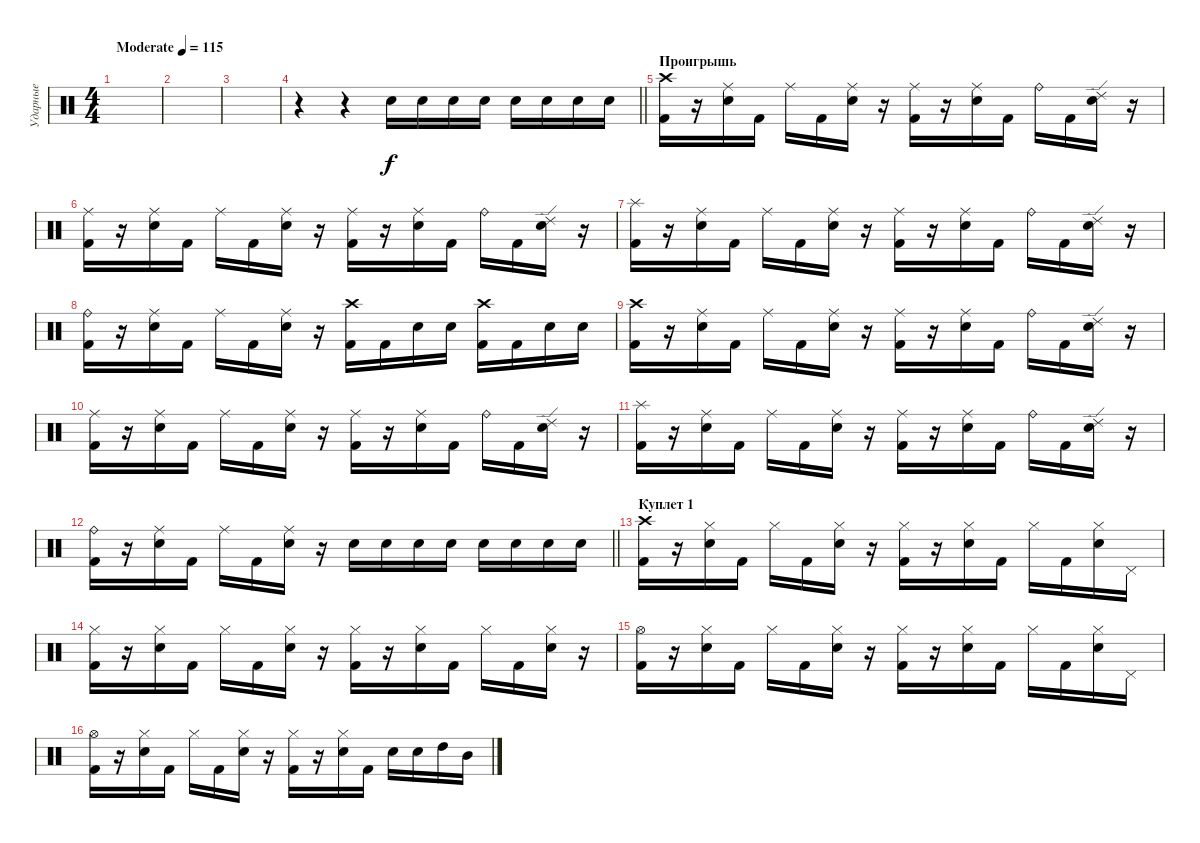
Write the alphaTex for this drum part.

\track ("Ударные" "Ударные") {instrument percussion}
\staff {score}
\articulation defaults
\ts (4 4)
\tempo (115 "Moderate")
\clef neutral
\ks c
|
|
|
\barLineRight lightlight
r.4 r.4 "Electric Snare (hit)".16 "Electric Snare (hit)".16 "Electric Snare (hit)".16 "Electric Snare (hit)".16 "Electric Snare (hit)".16 "Electric Snare (hit)".16 "Electric Snare (hit)".16 "Electric Snare (hit)".16 |
\section ("" "Проигрышь")
("Kick (hit) 2" "Crash high (hit)").16 r.16 ("Electric Snare (hit)" "Ride (middle)").16 "Kick (hit) 2".16 "Ride (middle)".16 "Kick (hit) 2".16 ("Electric Snare (hit)" "Ride (middle)").16 r.16 ("Kick (hit) 2" "Ride (middle)").16 r.16 ("Electric Snare (hit)" "Ride (middle)").16 "Kick (hit) 2".16 "Ride (bell)".16 "Kick (hit) 2".16 ("Electric Snare (hit)" "Ride (edge) 2").16 r.16 |
("Kick (hit) 2" "Ride (middle)").16 r.16 ("Electric Snare (hit)" "Ride (middle)").16 "Kick (hit) 2".16 "Ride (middle)".16 "Kick (hit) 2".16 ("Electric Snare (hit)" "Ride (middle)").16 r.16 ("Kick (hit) 2" "Ride (middle)").16 r.16 ("Electric Snare (hit)" "Ride (middle)").16 "Kick (hit) 2".16 "Ride (bell)".16 "Kick (hit) 2".16 ("Electric Snare (hit)" "Ride (edge) 2").16 r.16 |
("Kick (hit) 2" "Splash (hit)").16 r.16 ("Electric Snare (hit)" "Ride (middle)").16 "Kick (hit) 2".16 "Ride (middle)".16 "Kick (hit) 2".16 ("Electric Snare (hit)" "Ride (middle)").16 r.16 ("Kick (hit) 2" "Ride (middle)").16 r.16 ("Electric Snare (hit)" "Ride (middle)").16 "Kick (hit) 2".16 "Ride (bell)".16 "Kick (hit) 2".16 ("Electric Snare (hit)" "Ride (edge) 2").16 r.16 |
("Kick (hit) 2" "Ride (bell)").16 r.16 ("Electric Snare (hit)" "Ride (middle)").16 "Kick (hit) 2".16 "Ride (middle)".16 "Kick (hit) 2".16 ("Electric Snare (hit)" "Ride (middle)").16 r.16 ("Kick (hit) 2" "Crash high (hit)").16 "Kick (hit) 2".16 "Electric Snare (hit)".16 "Electric Snare (hit)".16 ("Kick (hit) 2" "Crash high (hit)").16 "Kick (hit) 2".16 "Electric Snare (hit)".16 "Electric Snare (hit)".16 |
("Kick (hit) 2" "Crash high (hit)").16 r.16 ("Electric Snare (hit)" "Ride (middle)").16 "Kick (hit) 2".16 "Ride (middle)".16 "Kick (hit) 2".16 ("Electric Snare (hit)" "Ride (middle)").16 r.16 ("Kick (hit) 2" "Ride (middle)").16 r.16 ("Electric Snare (hit)" "Ride (middle)").16 "Kick (hit) 2".16 "Ride (bell)".16 "Kick (hit) 2".16 ("Electric Snare (hit)" "Ride (edge) 2").16 r.16 |
("Kick (hit) 2" "Ride (middle)").16 r.16 ("Electric Snare (hit)" "Ride (middle)").16 "Kick (hit) 2".16 "Ride (middle)".16 "Kick (hit) 2".16 ("Electric Snare (hit)" "Ride (middle)").16 r.16 ("Kick (hit) 2" "Ride (middle)").16 r.16 ("Electric Snare (hit)" "Ride (middle)").16 "Kick (hit) 2".16 "Ride (bell)".16 "Kick (hit) 2".16 ("Electric Snare (hit)" "Ride (edge) 2").16 r.16 |
("Kick (hit) 2" "Splash (hit)").16 r.16 ("Electric Snare (hit)" "Ride (middle)").16 "Kick (hit) 2".16 "Ride (middle)".16 "Kick (hit) 2".16 ("Electric Snare (hit)" "Ride (middle)").16 r.16 ("Kick (hit) 2" "Ride (middle)").16 r.16 ("Electric Snare (hit)" "Ride (middle)").16 "Kick (hit) 2".16 "Ride (bell)".16 "Kick (hit) 2".16 ("Electric Snare (hit)" "Ride (edge) 2").16 r.16 |
\barLineRight lightlight
("Kick (hit) 2" "Ride (bell)").16 r.16 ("Electric Snare (hit)" "Ride (middle)").16 "Kick (hit) 2".16 "Ride (middle)".16 "Kick (hit) 2".16 ("Electric Snare (hit)" "Ride (middle)").16 r.16 "Electric Snare (hit)".16 "Electric Snare (hit)".16 "Electric Snare (hit)".16 "Electric Snare (hit)".16 "Electric Snare (hit)".16 "Electric Snare (hit)".16 "Electric Snare (hit)".16 "Electric Snare (hit)".16 |
\section ("" "Куплет 1")
("Kick (hit) 2" "Crash high (hit)").16 r.16 ("Electric Snare (hit)" "Hi-Hat (closed)").16 "Kick (hit) 2".16 "Hi-Hat (closed)".16 "Kick (hit) 2".16 ("Electric Snare (hit)" "Hi-Hat (closed)").16 r.16 ("Kick (hit) 2" "Hi-Hat (closed)").16 r.16 ("Electric Snare (hit)" "Hi-Hat (closed)").16 "Kick (hit) 2".16 "Hi-Hat (closed)".16 "Kick (hit) 2".16 ("Electric Snare (hit)" "Hi-Hat (closed)").16 "Pedal Hi-Hat (hit)".16 |
("Kick (hit) 2" "Hi-Hat (closed)").16 r.16 ("Electric Snare (hit)" "Hi-Hat (closed)").16 "Kick (hit) 2".16 "Hi-Hat (closed)".16 "Kick (hit) 2".16 ("Electric Snare (hit)" "Hi-Hat (closed)").16 r.16 ("Kick (hit) 2" "Hi-Hat (closed)").16 r.16 ("Electric Snare (hit)" "Hi-Hat (closed)").16 "Kick (hit) 2".16 "Hi-Hat (closed)".16 "Kick (hit) 2".16 ("Electric Snare (hit)" "Hi-Hat (closed)").16 r.16 |
("Kick (hit) 2" "Hi-Hat (open)").16 r.16 ("Electric Snare (hit)" "Hi-Hat (closed)").16 "Kick (hit) 2".16 "Hi-Hat (closed)".16 "Kick (hit) 2".16 ("Electric Snare (hit)" "Hi-Hat (closed)").16 r.16 ("Kick (hit) 2" "Hi-Hat (closed)").16 r.16 ("Electric Snare (hit)" "Hi-Hat (closed)").16 "Kick (hit) 2".16 "Hi-Hat (closed)".16 "Kick (hit) 2".16 ("Electric Snare (hit)" "Hi-Hat (closed)").16 "Pedal Hi-Hat (hit)".16 |
("Kick (hit) 2" "Hi-Hat (open)").16 r.16 ("Electric Snare (hit)" "Hi-Hat (closed)").16 "Kick (hit) 2".16 "Hi-Hat (closed)".16 "Kick (hit) 2".16 ("Electric Snare (hit)" "Hi-Hat (closed)").16 r.16 ("Kick (hit) 2" "Hi-Hat (closed)").16 r.16 ("Electric Snare (hit)" "Hi-Hat (closed)").16 "Kick (hit) 2".16 "Electric Snare (hit)".16 "Electric Snare (hit)".16 "High Tom (hit)".16 "Mid Tom (hit)".16
